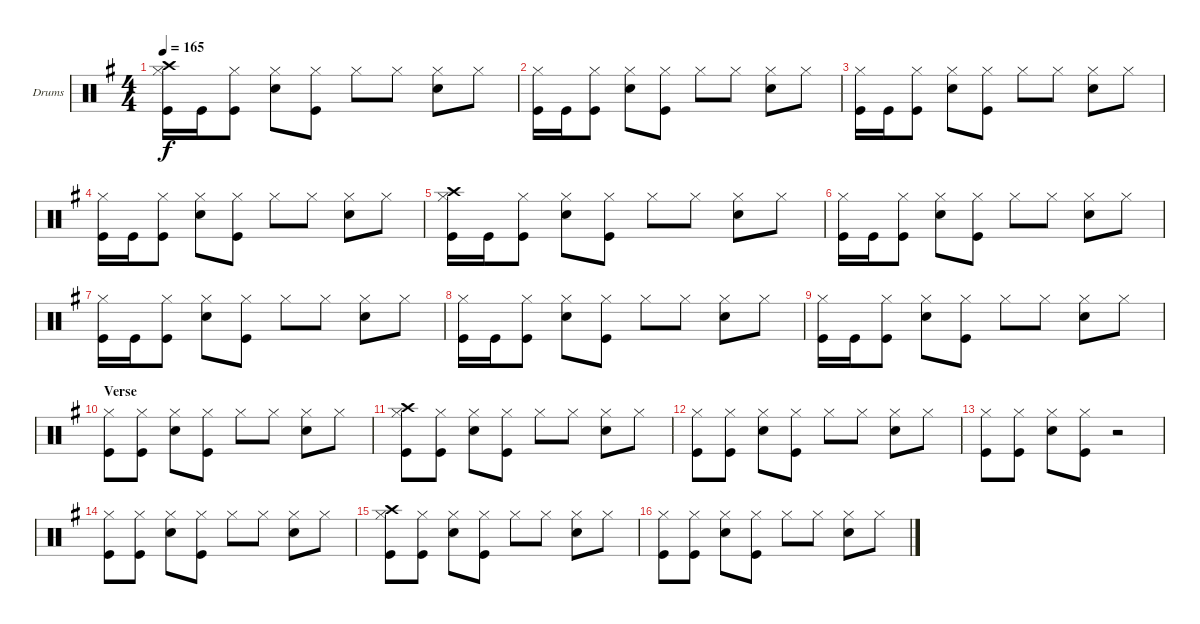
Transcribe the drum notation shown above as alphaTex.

\defaultSystemsLayout 4
\bracketExtendMode groupsimilarinstruments
\firstSystemTrackNameOrientation horizontal
\otherSystemsTrackNameOrientation horizontal
\track ("Drumkit" "Drums") {instrument percussion}
\staff {score}
\articulation defaults
\ts (4 4)
\tempo 165
\clef neutral
\scale
1.04288
\ks g
("Crash high (hit)" "Hi-Hat (closed)" "Kick (hit)").16{dy f} "Kick (hit)".16 ("Hi-Hat (closed)" "Kick (hit)").8 ("Hi-Hat (closed)" "Snare (hit) 2").8 ("Hi-Hat (closed)" "Kick (hit)").8 "Hi-Hat (closed)".8 "Hi-Hat (closed)".8 ("Hi-Hat (closed)" "Snare (hit) 2").8 "Hi-Hat (closed)".8 |
\scale
0.957125 ("Hi-Hat (closed)" "Kick (hit)").16 "Kick (hit)".16 ("Hi-Hat (closed)" "Kick (hit)").8 ("Hi-Hat (closed)" "Snare (hit) 2").8 ("Hi-Hat (closed)" "Kick (hit)").8 "Hi-Hat (closed)".8 "Hi-Hat (closed)".8 ("Hi-Hat (closed)" "Snare (hit) 2").8 "Hi-Hat (closed)".8 |
\scale
1.04288 ("Hi-Hat (closed)" "Kick (hit)").16 "Kick (hit)".16 ("Hi-Hat (closed)" "Kick (hit)").8 ("Hi-Hat (closed)" "Snare (hit) 2").8 ("Hi-Hat (closed)" "Kick (hit)").8 "Hi-Hat (closed)".8 "Hi-Hat (closed)".8 ("Hi-Hat (closed)" "Snare (hit) 2").8 "Hi-Hat (closed)".8 |
\scale
0.957125 ("Hi-Hat (closed)" "Kick (hit)").16 "Kick (hit)".16 ("Hi-Hat (closed)" "Kick (hit)").8 ("Hi-Hat (closed)" "Snare (hit) 2").8 ("Hi-Hat (closed)" "Kick (hit)").8 "Hi-Hat (closed)".8 "Hi-Hat (closed)".8 ("Hi-Hat (closed)" "Snare (hit) 2").8 "Hi-Hat (closed)".8 |
\scale
1.04288 ("Crash high (hit)" "Hi-Hat (closed)" "Kick (hit)").16 "Kick (hit)".16 ("Hi-Hat (closed)" "Kick (hit)").8 ("Hi-Hat (closed)" "Snare (hit) 2").8 ("Hi-Hat (closed)" "Kick (hit)").8 "Hi-Hat (closed)".8 "Hi-Hat (closed)".8 ("Hi-Hat (closed)" "Snare (hit) 2").8 "Hi-Hat (closed)".8 |
\scale
0.957125 ("Hi-Hat (closed)" "Kick (hit)").16 "Kick (hit)".16 ("Hi-Hat (closed)" "Kick (hit)").8 ("Hi-Hat (closed)" "Snare (hit) 2").8 ("Hi-Hat (closed)" "Kick (hit)").8 "Hi-Hat (closed)".8 "Hi-Hat (closed)".8 ("Hi-Hat (closed)" "Snare (hit) 2").8 "Hi-Hat (closed)".8 |
\scale
1.04288 ("Hi-Hat (closed)" "Kick (hit)").16 "Kick (hit)".16 ("Hi-Hat (closed)" "Kick (hit)").8 ("Hi-Hat (closed)" "Snare (hit) 2").8 ("Hi-Hat (closed)" "Kick (hit)").8 "Hi-Hat (closed)".8 "Hi-Hat (closed)".8 ("Hi-Hat (closed)" "Snare (hit) 2").8 "Hi-Hat (closed)".8 |
\scale
0.957125 ("Hi-Hat (closed)" "Kick (hit)").16 "Kick (hit)".16 ("Hi-Hat (closed)" "Kick (hit)").8 ("Hi-Hat (closed)" "Snare (hit) 2").8 ("Hi-Hat (closed)" "Kick (hit)").8 "Hi-Hat (closed)".8 "Hi-Hat (closed)".8 ("Hi-Hat (closed)" "Snare (hit) 2").8 "Hi-Hat (closed)".8 |
\scale
1.04288 ("Hi-Hat (closed)" "Kick (hit)").16 "Kick (hit)".16 ("Hi-Hat (closed)" "Kick (hit)").8 ("Hi-Hat (closed)" "Snare (hit) 2").8 ("Hi-Hat (closed)" "Kick (hit)").8 "Hi-Hat (closed)".8 "Hi-Hat (closed)".8 ("Hi-Hat (closed)" "Snare (hit) 2").8 "Hi-Hat (closed)".8 |
\section ("" "Verse")
\scale
0.957125 ("Hi-Hat (closed)" "Kick (hit)").8 ("Hi-Hat (closed)" "Kick (hit)").8 ("Hi-Hat (closed)" "Snare (hit) 2").8 ("Hi-Hat (closed)" "Kick (hit)").8 "Hi-Hat (closed)".8 "Hi-Hat (closed)".8 ("Hi-Hat (closed)" "Snare (hit) 2").8 "Hi-Hat (closed)".8 |
\scale
1.04288 ("Crash high (hit)" "Hi-Hat (closed)" "Kick (hit)").8 ("Hi-Hat (closed)" "Kick (hit)").8 ("Hi-Hat (closed)" "Snare (hit) 2").8 ("Hi-Hat (closed)" "Kick (hit)").8 "Hi-Hat (closed)".8 "Hi-Hat (closed)".8 ("Hi-Hat (closed)" "Snare (hit) 2").8 "Hi-Hat (closed)".8 |
\scale
0.957125 ("Hi-Hat (closed)" "Kick (hit)").8 ("Hi-Hat (closed)" "Kick (hit)").8 ("Hi-Hat (closed)" "Snare (hit) 2").8 ("Hi-Hat (closed)" "Kick (hit)").8 "Hi-Hat (closed)".8 "Hi-Hat (closed)".8 ("Hi-Hat (closed)" "Snare (hit) 2").8 "Hi-Hat (closed)".8 |
\scale
1.04288 ("Hi-Hat (closed)" "Kick (hit)").8 ("Hi-Hat (closed)" "Kick (hit)").8 ("Hi-Hat (closed)" "Snare (hit) 2").8 ("Hi-Hat (closed)" "Kick (hit)").8 r.2 |
\scale
0.957125 ("Hi-Hat (closed)" "Kick (hit)").8 ("Hi-Hat (closed)" "Kick (hit)").8 ("Hi-Hat (closed)" "Snare (hit) 2").8 ("Hi-Hat (closed)" "Kick (hit)").8 "Hi-Hat (closed)".8 "Hi-Hat (closed)".8 ("Hi-Hat (closed)" "Snare (hit) 2").8 "Hi-Hat (closed)".8 |
\scale
1.04288 ("Crash high (hit)" "Hi-Hat (closed)" "Kick (hit)").8 ("Hi-Hat (closed)" "Kick (hit)").8 ("Hi-Hat (closed)" "Snare (hit) 2").8 ("Hi-Hat (closed)" "Kick (hit)").8 "Hi-Hat (closed)".8 "Hi-Hat (closed)".8 ("Hi-Hat (closed)" "Snare (hit) 2").8 "Hi-Hat (closed)".8 |
\scale
0.957125 ("Hi-Hat (closed)" "Kick (hit)").8 ("Hi-Hat (closed)" "Kick (hit)").8 ("Hi-Hat (closed)" "Snare (hit) 2").8 ("Hi-Hat (closed)" "Kick (hit)").8 "Hi-Hat (closed)".8 "Hi-Hat (closed)".8 ("Hi-Hat (closed)" "Snare (hit) 2").8 "Hi-Hat (closed)".8
